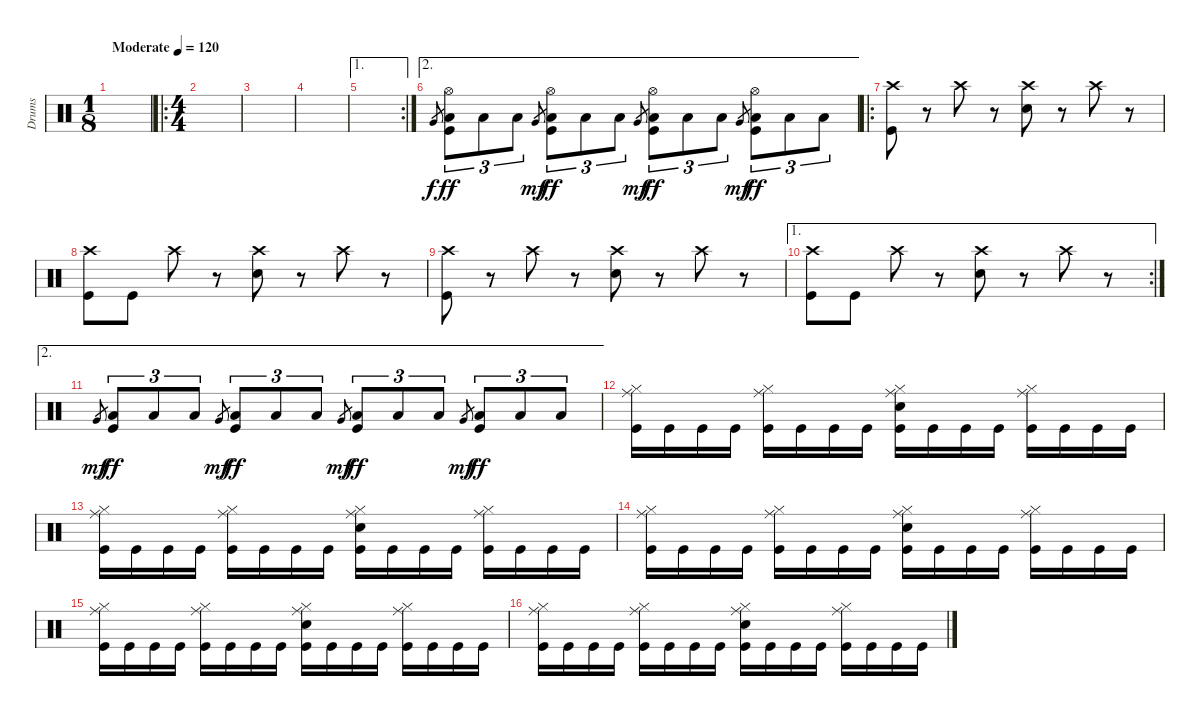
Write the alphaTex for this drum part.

\track ("Drums" "Drums") {instrument percussion}
\staff {score}
\articulation defaults
\ts (1 8)
\tempo (120 "Moderate")
\clef neutral
\ks c
|
\ro
\ts (4 4)
|
|
|
\ae 1
\rc 2
|
\ae 2 "Very Low Tom (hit)".8{gr}
("Hi-Hat (open)" "Low Tom (hit)" "Kick (hit)").8{tu (3 2) dy ff} "Low Floor Tom (hit)".8{tu (3 2)} "Low Floor Tom (hit)".8{tu (3 2)} "Very Low Tom (hit)".8{gr dy mf} ("Hi-Hat (open)" "Low Tom (hit)" "Kick (hit)").8{tu (3 2) dy ff} "Low Floor Tom (hit)".8{tu (3 2)} "Low Floor Tom (hit)".8{tu (3 2)} "Very Low Tom (hit)".8{gr dy mf} ("Hi-Hat (open)" "Low Tom (hit)" "Kick (hit)").8{tu (3 2) dy ff} "Low Floor Tom (hit)".8{tu (3 2)} "Low Floor Tom (hit)".8{tu (3 2)} "Very Low Tom (hit)".8{gr dy mf} ("Hi-Hat (open)" "Low Tom (hit)" "Kick (hit)").8{tu (3 2) dy ff} "Low Floor Tom (hit)".8{tu (3 2)} "Low Floor Tom (hit)".8{tu (3 2)} |
\ro
("Crash high (hit)" "Kick (hit)").8 r.8 "Crash high (hit)".8 r.8 ("Crash high (hit)" "Snare (hit) 2").8 r.8 "Crash high (hit)".8 r.8 |
("Crash high (hit)" "Kick (hit)").8 "Kick (hit)".8 "Crash high (hit)".8 r.8 ("Crash high (hit)" "Snare (hit) 2").8 r.8 "Crash high (hit)".8 r.8 |
("Crash high (hit)" "Kick (hit)").8 r.8 "Crash high (hit)".8 r.8 ("Crash high (hit)" "Snare (hit) 2").8 r.8 "Crash high (hit)".8 r.8 |
\ae 1
\rc 2
("Crash high (hit)" "Kick (hit)").8 "Kick (hit)".8 "Crash high (hit)".8 r.8 ("Crash high (hit)" "Snare (hit) 2").8 r.8 "Crash high (hit)".8 r.8 |
\ae 2 "Very Low Tom (hit)".8{gr dy mf}
("Low Tom (hit)" "Kick (hit)").8{tu (3 2) dy ff} "Low Floor Tom (hit)".8{tu (3 2)} "Low Floor Tom (hit)".8{tu (3 2)} "Very Low Tom (hit)".8{gr dy mf} ("Low Tom (hit)" "Kick (hit)").8{tu (3 2) dy ff} "Low Floor Tom (hit)".8{tu (3 2)} "Low Floor Tom (hit)".8{tu (3 2)} "Very Low Tom (hit)".8{gr dy mf} ("Low Tom (hit)" "Kick (hit)").8{tu (3 2) dy ff} "Low Floor Tom (hit)".8{tu (3 2)} "Low Floor Tom (hit)".8{tu (3 2)} "Very Low Tom (hit)".8{gr dy mf} ("Low Tom (hit)" "Kick (hit)").8{tu (3 2) dy ff} "Low Floor Tom (hit)".8{tu (3 2)} "Low Floor Tom (hit)".8{tu (3 2)} |
("Ride (middle)" "Hi-Hat (closed)" "Kick (hit)").16 "Kick (hit)".16 "Kick (hit)".16 "Kick (hit)".16 ("Ride (middle)" "Hi-Hat (closed)" "Kick (hit)").16 "Kick (hit)".16 "Kick (hit)".16 "Kick (hit)".16 ("Ride (middle)" "Hi-Hat (closed)" "Snare (hit) 2" "Kick (hit)").16 "Kick (hit)".16 "Kick (hit)".16 "Kick (hit)".16 ("Ride (middle)" "Hi-Hat (closed)" "Kick (hit)").16 "Kick (hit)".16 "Kick (hit)".16 "Kick (hit)".16 |
("Ride (middle)" "Hi-Hat (closed)" "Kick (hit)").16 "Kick (hit)".16 "Kick (hit)".16 "Kick (hit)".16 ("Ride (middle)" "Hi-Hat (closed)" "Kick (hit)").16 "Kick (hit)".16 "Kick (hit)".16 "Kick (hit)".16 ("Ride (middle)" "Hi-Hat (closed)" "Snare (hit) 2" "Kick (hit)").16 "Kick (hit)".16 "Kick (hit)".16 "Kick (hit)".16 ("Ride (middle)" "Hi-Hat (closed)" "Kick (hit)").16 "Kick (hit)".16 "Kick (hit)".16 "Kick (hit)".16 |
("Ride (middle)" "Hi-Hat (closed)" "Kick (hit)").16 "Kick (hit)".16 "Kick (hit)".16 "Kick (hit)".16 ("Ride (middle)" "Hi-Hat (closed)" "Kick (hit)").16 "Kick (hit)".16 "Kick (hit)".16 "Kick (hit)".16 ("Ride (middle)" "Hi-Hat (closed)" "Snare (hit) 2" "Kick (hit)").16 "Kick (hit)".16 "Kick (hit)".16 "Kick (hit)".16 ("Ride (middle)" "Hi-Hat (closed)" "Kick (hit)").16 "Kick (hit)".16 "Kick (hit)".16 "Kick (hit)".16 |
("Ride (middle)" "Hi-Hat (closed)" "Kick (hit)").16 "Kick (hit)".16 "Kick (hit)".16 "Kick (hit)".16 ("Ride (middle)" "Hi-Hat (closed)" "Kick (hit)").16 "Kick (hit)".16 "Kick (hit)".16 "Kick (hit)".16 ("Ride (middle)" "Hi-Hat (closed)" "Snare (hit) 2" "Kick (hit)").16 "Kick (hit)".16 "Kick (hit)".16 "Kick (hit)".16 ("Ride (middle)" "Hi-Hat (closed)" "Kick (hit)").16 "Kick (hit)".16 "Kick (hit)".16 "Kick (hit)".16 |
("Ride (middle)" "Hi-Hat (closed)" "Kick (hit)").16 "Kick (hit)".16 "Kick (hit)".16 "Kick (hit)".16 ("Ride (middle)" "Hi-Hat (closed)" "Kick (hit)").16 "Kick (hit)".16 "Kick (hit)".16 "Kick (hit)".16 ("Ride (middle)" "Hi-Hat (closed)" "Snare (hit) 2" "Kick (hit)").16 "Kick (hit)".16 "Kick (hit)".16 "Kick (hit)".16 ("Ride (middle)" "Hi-Hat (closed)" "Kick (hit)").16 "Kick (hit)".16 "Kick (hit)".16 "Kick (hit)".16
